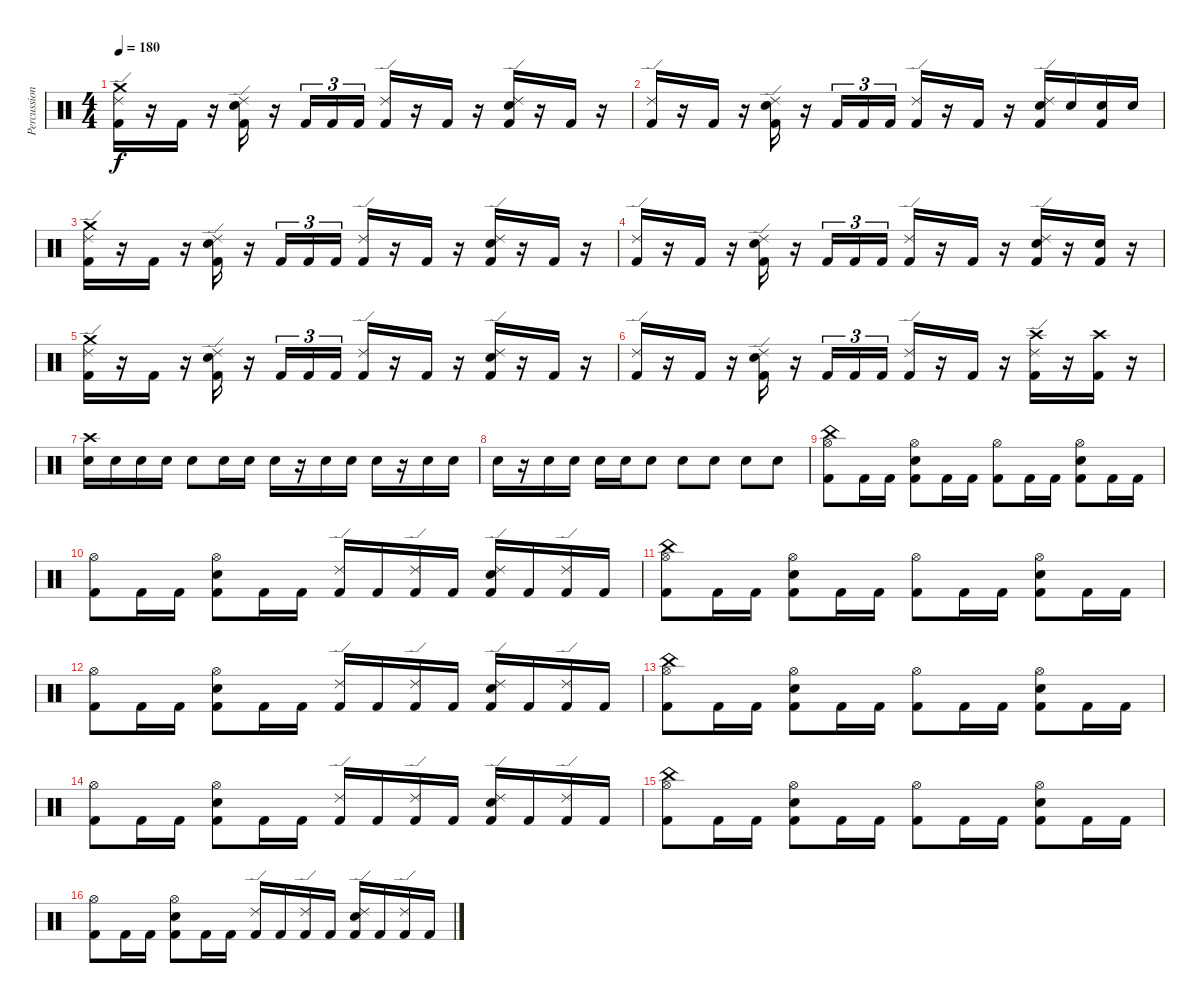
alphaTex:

\track ("Percussion" "Percussion") {instrument percussion}
\staff {score}
\articulation defaults
\ts (4 4)
\tempo 180
\clef neutral
\ks c
("Crash medium (hit)" "Ride (edge) 2" "Kick (hit) 2").16{dy f} r.16 "Kick (hit) 2".16 r.16 ("Ride (edge) 2" "Snare (hit) 2" "Kick (hit) 2").16 r.16 "Kick (hit) 2".16{tu (3 2)} "Kick (hit) 2".16{tu (3 2)} "Kick (hit) 2".16{tu (3 2)} ("Ride (edge) 2" "Kick (hit) 2").16 r.16 "Kick (hit) 2".16 r.16 ("Ride (edge) 2" "Snare (hit) 2" "Kick (hit) 2").16 r.16 "Kick (hit) 2".16 r.16 |
("Ride (edge) 2" "Kick (hit) 2").16 r.16 "Kick (hit) 2".16 r.16 ("Ride (edge) 2" "Snare (hit) 2" "Kick (hit) 2").16 r.16 "Kick (hit) 2".16{tu (3 2)} "Kick (hit) 2".16{tu (3 2)} "Kick (hit) 2".16{tu (3 2)} ("Ride (edge) 2" "Kick (hit) 2").16 r.16 "Kick (hit) 2".16 r.16 ("Ride (edge) 2" "Snare (hit) 2" "Kick (hit) 2").16 "Snare (hit) 2".16 ("Snare (hit) 2" "Kick (hit) 2").16 "Snare (hit) 2".16 |
("Crash medium (hit)" "Ride (edge) 2" "Kick (hit) 2").16 r.16 "Kick (hit) 2".16 r.16 ("Ride (edge) 2" "Snare (hit) 2" "Kick (hit) 2").16 r.16 "Kick (hit) 2".16{tu (3 2)} "Kick (hit) 2".16{tu (3 2)} "Kick (hit) 2".16{tu (3 2)} ("Ride (edge) 2" "Kick (hit) 2").16 r.16 "Kick (hit) 2".16 r.16 ("Ride (edge) 2" "Snare (hit) 2" "Kick (hit) 2").16 r.16 "Kick (hit) 2".16 r.16 |
("Ride (edge) 2" "Kick (hit) 2").16 r.16 "Kick (hit) 2".16 r.16 ("Ride (edge) 2" "Snare (hit) 2" "Kick (hit) 2").16 r.16 "Kick (hit) 2".16{tu (3 2)} "Kick (hit) 2".16{tu (3 2)} "Kick (hit) 2".16{tu (3 2)} ("Ride (edge) 2" "Kick (hit) 2").16 r.16 "Kick (hit) 2".16 r.16 ("Ride (edge) 2" "Snare (hit) 2" "Kick (hit) 2").16 r.16 ("Snare (hit) 2" "Kick (hit) 2").16 r.16 |
("Crash medium (hit)" "Ride (edge) 2" "Kick (hit) 2").16 r.16 "Kick (hit) 2".16 r.16 ("Ride (edge) 2" "Snare (hit) 2" "Kick (hit) 2").16 r.16 "Kick (hit) 2".16{tu (3 2)} "Kick (hit) 2".16{tu (3 2)} "Kick (hit) 2".16{tu (3 2)} ("Ride (edge) 2" "Kick (hit) 2").16 r.16 "Kick (hit) 2".16 r.16 ("Ride (edge) 2" "Snare (hit) 2" "Kick (hit) 2").16 r.16 "Kick (hit) 2".16 r.16 |
("Ride (edge) 2" "Kick (hit) 2").16 r.16 "Kick (hit) 2".16 r.16 ("Ride (edge) 2" "Snare (hit) 2" "Kick (hit) 2").16 r.16 "Kick (hit) 2".16{tu (3 2)} "Kick (hit) 2".16{tu (3 2)} "Kick (hit) 2".16{tu (3 2)} ("Ride (edge) 2" "Kick (hit) 2").16 r.16 "Kick (hit) 2".16 r.16 ("Crash high (hit)" "Ride (edge) 2" "Kick (hit) 2").16 r.16 ("Crash high (hit)" "Kick (hit) 2").16 r.16 |
("Crash high (hit)" "Snare (hit) 2").16 "Snare (hit) 2".16 "Snare (hit) 2".16 "Snare (hit) 2".16 "Snare (hit) 2".8 "Snare (hit) 2".16 "Snare (hit) 2".16 "Snare (hit) 2".16 r.16 "Snare (hit) 2".16 "Snare (hit) 2".16 "Snare (hit) 2".16 r.16 "Snare (hit) 2".16 "Snare (hit) 2".16 |
"Snare (hit) 2".16 r.16 "Snare (hit) 2".16 "Snare (hit) 2".16 "Snare (hit) 2".16 "Snare (hit) 2".16 "Snare (hit) 2".8 "Snare (hit) 2".8 "Snare (hit) 2".8 "Snare (hit) 2".8 "Snare (hit) 2".8 |
("China (hit)" "Hi-Hat (open)" "Kick (hit) 2").8 "Kick (hit) 2".16 "Kick (hit) 2".16 ("Hi-Hat (open)" "Snare (hit) 2" "Kick (hit) 2").8 "Kick (hit) 2".16 "Kick (hit) 2".16 ("Hi-Hat (open)" "Kick (hit) 2").8 "Kick (hit) 2".16 "Kick (hit) 2".16 ("Hi-Hat (open)" "Snare (hit) 2" "Kick (hit) 2").8 "Kick (hit) 2".16 "Kick (hit) 2".16 |
("Hi-Hat (open)" "Kick (hit) 2").8 "Kick (hit) 2".16 "Kick (hit) 2".16 ("Hi-Hat (open)" "Snare (hit) 2" "Kick (hit) 2").8 "Kick (hit) 2".16 "Kick (hit) 2".16 ("Ride (edge) 2" "Kick (hit) 2").16 "Kick (hit) 2".16 ("Ride (edge) 2" "Kick (hit) 2").16 "Kick (hit) 2".16 ("Ride (edge) 2" "Snare (hit) 2" "Kick (hit) 2").16 "Kick (hit) 2".16 ("Ride (edge) 2" "Kick (hit) 2").16 "Kick (hit) 2".16 |
("China (hit)" "Hi-Hat (open)" "Kick (hit) 2").8 "Kick (hit) 2".16 "Kick (hit) 2".16 ("Hi-Hat (open)" "Snare (hit) 2" "Kick (hit) 2").8 "Kick (hit) 2".16 "Kick (hit) 2".16 ("Hi-Hat (open)" "Kick (hit) 2").8 "Kick (hit) 2".16 "Kick (hit) 2".16 ("Hi-Hat (open)" "Snare (hit) 2" "Kick (hit) 2").8 "Kick (hit) 2".16 "Kick (hit) 2".16 |
("Hi-Hat (open)" "Kick (hit) 2").8 "Kick (hit) 2".16 "Kick (hit) 2".16 ("Hi-Hat (open)" "Snare (hit) 2" "Kick (hit) 2").8 "Kick (hit) 2".16 "Kick (hit) 2".16 ("Ride (edge) 2" "Kick (hit) 2").16 "Kick (hit) 2".16 ("Ride (edge) 2" "Kick (hit) 2").16 "Kick (hit) 2".16 ("Ride (edge) 2" "Snare (hit) 2" "Kick (hit) 2").16 "Kick (hit) 2".16 ("Ride (edge) 2" "Kick (hit) 2").16 "Kick (hit) 2".16 |
("China (hit)" "Hi-Hat (open)" "Kick (hit) 2").8 "Kick (hit) 2".16 "Kick (hit) 2".16 ("Hi-Hat (open)" "Snare (hit) 2" "Kick (hit) 2").8 "Kick (hit) 2".16 "Kick (hit) 2".16 ("Hi-Hat (open)" "Kick (hit) 2").8 "Kick (hit) 2".16 "Kick (hit) 2".16 ("Hi-Hat (open)" "Snare (hit) 2" "Kick (hit) 2").8 "Kick (hit) 2".16 "Kick (hit) 2".16 |
("Hi-Hat (open)" "Kick (hit) 2").8 "Kick (hit) 2".16 "Kick (hit) 2".16 ("Hi-Hat (open)" "Snare (hit) 2" "Kick (hit) 2").8 "Kick (hit) 2".16 "Kick (hit) 2".16 ("Ride (edge) 2" "Kick (hit) 2").16 "Kick (hit) 2".16 ("Ride (edge) 2" "Kick (hit) 2").16 "Kick (hit) 2".16 ("Ride (edge) 2" "Snare (hit) 2" "Kick (hit) 2").16 "Kick (hit) 2".16 ("Ride (edge) 2" "Kick (hit) 2").16 "Kick (hit) 2".16 |
("China (hit)" "Hi-Hat (open)" "Kick (hit) 2").8 "Kick (hit) 2".16 "Kick (hit) 2".16 ("Hi-Hat (open)" "Snare (hit) 2" "Kick (hit) 2").8 "Kick (hit) 2".16 "Kick (hit) 2".16 ("Hi-Hat (open)" "Kick (hit) 2").8 "Kick (hit) 2".16 "Kick (hit) 2".16 ("Hi-Hat (open)" "Snare (hit) 2" "Kick (hit) 2").8 "Kick (hit) 2".16 "Kick (hit) 2".16 |
("Hi-Hat (open)" "Kick (hit) 2").8 "Kick (hit) 2".16 "Kick (hit) 2".16 ("Hi-Hat (open)" "Snare (hit) 2" "Kick (hit) 2").8 "Kick (hit) 2".16 "Kick (hit) 2".16 ("Ride (edge) 2" "Kick (hit) 2").16 "Kick (hit) 2".16 ("Ride (edge) 2" "Kick (hit) 2").16 "Kick (hit) 2".16 ("Ride (edge) 2" "Snare (hit) 2" "Kick (hit) 2").16 "Kick (hit) 2".16 ("Ride (edge) 2" "Kick (hit) 2").16 "Kick (hit) 2".16
